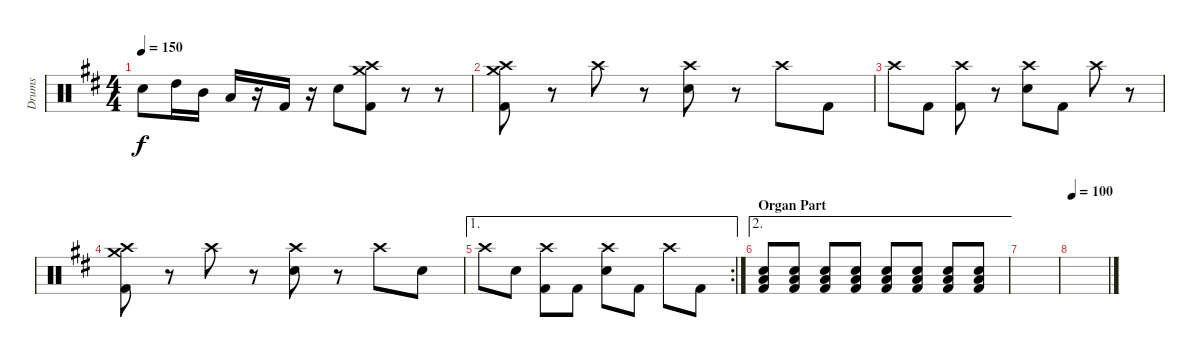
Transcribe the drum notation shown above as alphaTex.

\track ("Drums" "Drums") {instrument percussion}
\staff {score}
\articulation defaults
\ts (4 4)
\tempo 150
\clef neutral
\ks d "Snare (hit) 2".8{dy f} "High Tom (hit)".16 "Mid Tom (hit)".16 "Low Tom (hit)".16
r.16 "Kick (hit) 2".16 r.16 "Snare (hit) 2".8 ("Crash medium (hit)" "Crash high (hit)" "Kick (hit) 2").8 r.8 r.8 |
("Crash medium (hit)" "Crash high (hit)" "Kick (hit) 2").8 r.8 "Crash high (hit)".8 r.8 ("Crash high (hit)" "Snare (hit) 2").8 r.8 "Crash high (hit)".8 "Kick (hit) 2".8 |
"Crash high (hit)".8 "Kick (hit) 2".8 ("Crash high (hit)" "Kick (hit) 2").8 r.8 ("Crash high (hit)" "Snare (hit) 2").8 "Kick (hit) 2".8 "Crash high (hit)".8 r.8 |
("Crash medium (hit)" "Crash high (hit)" "Kick (hit) 2").8 r.8 "Crash high (hit)".8 r.8 ("Crash high (hit)" "Snare (hit) 2").8 r.8 "Crash high (hit)".8 "Snare (hit) 2".8 |
\ae 1
\rc 2 "Crash high (hit)".8 "Snare (hit) 2".8
("Crash high (hit)" "Kick (hit) 2").8 "Kick (hit) 2".8 ("Crash high (hit)" "Snare (hit) 2").8 "Kick (hit) 2".8 "Crash high (hit)".8 "Kick (hit) 2".8 |
\ae 2
\section ("" "Organ Part")
("Low Tom (hit)" "Snare (hit) 2" "Kick (hit) 2").8 ("Low Tom (hit)" "Snare (hit) 2" "Kick (hit) 2").8 ("Low Tom (hit)" "Snare (hit) 2" "Kick (hit) 2").8 ("Low Tom (hit)" "Snare (hit) 2" "Kick (hit) 2").8 ("Low Tom (hit)" "Snare (hit) 2" "Kick (hit) 2").8 ("Low Tom (hit)" "Snare (hit) 2" "Kick (hit) 2").8 ("Low Tom (hit)" "Snare (hit) 2" "Kick (hit) 2").8 ("Low Tom (hit)" "Snare (hit) 2" "Kick (hit) 2").8 |
|
\tempo 100
